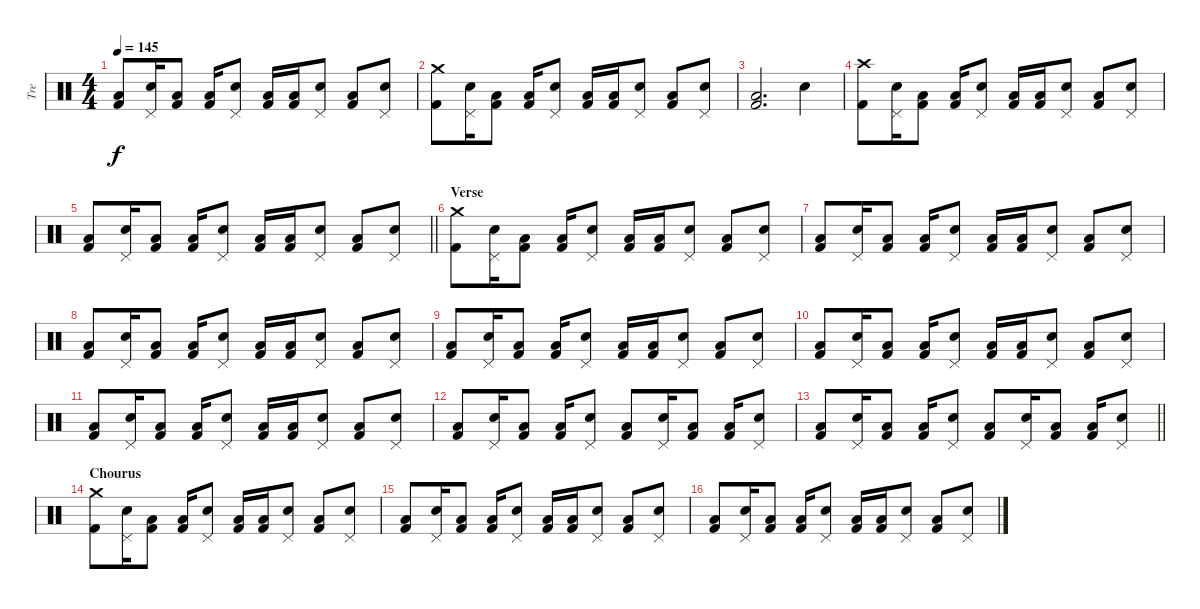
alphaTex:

\track ("Tre" "Tre") {instrument percussion}
\staff {score}
\articulation defaults
\ts (4 4)
\tempo 145
\clef neutral
\ks c
("Low Floor Tom (hit)" "Kick (hit) 2").8{dy f} ("Snare (hit) 2" "Pedal Hi-Hat (hit)").16 ("Low Floor Tom (hit)" "Kick (hit) 2").8 ("Low Floor Tom (hit)" "Kick (hit) 2").16 ("Snare (hit) 2" "Pedal Hi-Hat (hit)").8 ("Low Floor Tom (hit)" "Kick (hit) 2").16 ("Low Floor Tom (hit)" "Kick (hit) 2").16 ("Snare (hit) 2" "Pedal Hi-Hat (hit)").8 ("Low Floor Tom (hit)" "Kick (hit) 2").8 ("Snare (hit) 2" "Pedal Hi-Hat (hit)").8 |
("Crash medium (hit)" "Kick (hit) 2").8 ("Snare (hit) 2" "Pedal Hi-Hat (hit)").16 ("Low Floor Tom (hit)" "Kick (hit) 2").8 ("Low Floor Tom (hit)" "Kick (hit) 2").16 ("Snare (hit) 2" "Pedal Hi-Hat (hit)").8 ("Low Floor Tom (hit)" "Kick (hit) 2").16 ("Low Floor Tom (hit)" "Kick (hit) 2").16 ("Snare (hit) 2" "Pedal Hi-Hat (hit)").8 ("Low Floor Tom (hit)" "Kick (hit) 2").8 ("Snare (hit) 2" "Pedal Hi-Hat (hit)").8 |
("Low Floor Tom (hit)" "Kick (hit) 2").2{d} "Snare (hit) 2".4 |
("Crash high (hit)" "Kick (hit) 2").8 ("Snare (hit) 2" "Pedal Hi-Hat (hit)").16 ("Low Floor Tom (hit)" "Kick (hit) 2").8 ("Low Floor Tom (hit)" "Kick (hit) 2").16 ("Snare (hit) 2" "Pedal Hi-Hat (hit)").8 ("Low Floor Tom (hit)" "Kick (hit) 2").16 ("Low Floor Tom (hit)" "Kick (hit) 2").16 ("Snare (hit) 2" "Pedal Hi-Hat (hit)").8 ("Low Floor Tom (hit)" "Kick (hit) 2").8 ("Snare (hit) 2" "Pedal Hi-Hat (hit)").8 |
\barLineRight lightlight
("Low Floor Tom (hit)" "Kick (hit) 2").8 ("Snare (hit) 2" "Pedal Hi-Hat (hit)").16 ("Low Floor Tom (hit)" "Kick (hit) 2").8 ("Low Floor Tom (hit)" "Kick (hit) 2").16 ("Snare (hit) 2" "Pedal Hi-Hat (hit)").8 ("Low Floor Tom (hit)" "Kick (hit) 2").16 ("Low Floor Tom (hit)" "Kick (hit) 2").16 ("Snare (hit) 2" "Pedal Hi-Hat (hit)").8 ("Low Floor Tom (hit)" "Kick (hit) 2").8 ("Snare (hit) 2" "Pedal Hi-Hat (hit)").8 |
\section ("" "Verse")
("Crash medium (hit)" "Kick (hit) 2").8 ("Snare (hit) 2" "Pedal Hi-Hat (hit)").16 ("Low Floor Tom (hit)" "Kick (hit) 2").8 ("Low Floor Tom (hit)" "Kick (hit) 2").16 ("Snare (hit) 2" "Pedal Hi-Hat (hit)").8 ("Low Floor Tom (hit)" "Kick (hit) 2").16 ("Low Floor Tom (hit)" "Kick (hit) 2").16 ("Snare (hit) 2" "Pedal Hi-Hat (hit)").8 ("Low Floor Tom (hit)" "Kick (hit) 2").8 ("Snare (hit) 2" "Pedal Hi-Hat (hit)").8 |
("Low Floor Tom (hit)" "Kick (hit) 2").8 ("Snare (hit) 2" "Pedal Hi-Hat (hit)").16 ("Low Floor Tom (hit)" "Kick (hit) 2").8 ("Low Floor Tom (hit)" "Kick (hit) 2").16 ("Snare (hit) 2" "Pedal Hi-Hat (hit)").8 ("Low Floor Tom (hit)" "Kick (hit) 2").16 ("Low Floor Tom (hit)" "Kick (hit) 2").16 ("Snare (hit) 2" "Pedal Hi-Hat (hit)").8 ("Low Floor Tom (hit)" "Kick (hit) 2").8 ("Snare (hit) 2" "Pedal Hi-Hat (hit)").8 |
("Low Floor Tom (hit)" "Kick (hit) 2").8 ("Snare (hit) 2" "Pedal Hi-Hat (hit)").16 ("Low Floor Tom (hit)" "Kick (hit) 2").8 ("Low Floor Tom (hit)" "Kick (hit) 2").16 ("Snare (hit) 2" "Pedal Hi-Hat (hit)").8 ("Low Floor Tom (hit)" "Kick (hit) 2").16 ("Low Floor Tom (hit)" "Kick (hit) 2").16 ("Snare (hit) 2" "Pedal Hi-Hat (hit)").8 ("Low Floor Tom (hit)" "Kick (hit) 2").8 ("Snare (hit) 2" "Pedal Hi-Hat (hit)").8 |
("Low Floor Tom (hit)" "Kick (hit) 2").8 ("Snare (hit) 2" "Pedal Hi-Hat (hit)").16 ("Low Floor Tom (hit)" "Kick (hit) 2").8 ("Low Floor Tom (hit)" "Kick (hit) 2").16 ("Snare (hit) 2" "Pedal Hi-Hat (hit)").8 ("Low Floor Tom (hit)" "Kick (hit) 2").16 ("Low Floor Tom (hit)" "Kick (hit) 2").16 ("Snare (hit) 2" "Pedal Hi-Hat (hit)").8 ("Low Floor Tom (hit)" "Kick (hit) 2").8 ("Snare (hit) 2" "Pedal Hi-Hat (hit)").8 |
("Low Floor Tom (hit)" "Kick (hit) 2").8 ("Snare (hit) 2" "Pedal Hi-Hat (hit)").16 ("Low Floor Tom (hit)" "Kick (hit) 2").8 ("Low Floor Tom (hit)" "Kick (hit) 2").16 ("Snare (hit) 2" "Pedal Hi-Hat (hit)").8 ("Low Floor Tom (hit)" "Kick (hit) 2").16 ("Low Floor Tom (hit)" "Kick (hit) 2").16 ("Snare (hit) 2" "Pedal Hi-Hat (hit)").8 ("Low Floor Tom (hit)" "Kick (hit) 2").8 ("Snare (hit) 2" "Pedal Hi-Hat (hit)").8 |
("Low Floor Tom (hit)" "Kick (hit) 2").8 ("Snare (hit) 2" "Pedal Hi-Hat (hit)").16 ("Low Floor Tom (hit)" "Kick (hit) 2").8 ("Low Floor Tom (hit)" "Kick (hit) 2").16 ("Snare (hit) 2" "Pedal Hi-Hat (hit)").8 ("Low Floor Tom (hit)" "Kick (hit) 2").16 ("Low Floor Tom (hit)" "Kick (hit) 2").16 ("Snare (hit) 2" "Pedal Hi-Hat (hit)").8 ("Low Floor Tom (hit)" "Kick (hit) 2").8 ("Snare (hit) 2" "Pedal Hi-Hat (hit)").8 |
("Low Floor Tom (hit)" "Kick (hit) 2").8 ("Snare (hit) 2" "Pedal Hi-Hat (hit)").16 ("Low Floor Tom (hit)" "Kick (hit) 2").8 ("Low Floor Tom (hit)" "Kick (hit) 2").16 ("Snare (hit) 2" "Pedal Hi-Hat (hit)").8 ("Low Floor Tom (hit)" "Kick (hit) 2").8 ("Snare (hit) 2" "Pedal Hi-Hat (hit)").16 ("Low Floor Tom (hit)" "Kick (hit) 2").8 ("Low Floor Tom (hit)" "Kick (hit) 2").16 ("Snare (hit) 2" "Pedal Hi-Hat (hit)").8 |
\barLineRight lightlight
("Low Floor Tom (hit)" "Kick (hit) 2").8 ("Snare (hit) 2" "Pedal Hi-Hat (hit)").16 ("Low Floor Tom (hit)" "Kick (hit) 2").8 ("Low Floor Tom (hit)" "Kick (hit) 2").16 ("Snare (hit) 2" "Pedal Hi-Hat (hit)").8 ("Low Floor Tom (hit)" "Kick (hit) 2").8 ("Snare (hit) 2" "Pedal Hi-Hat (hit)").16 ("Low Floor Tom (hit)" "Kick (hit) 2").8 ("Low Floor Tom (hit)" "Kick (hit) 2").16 ("Snare (hit) 2" "Pedal Hi-Hat (hit)").8 |
\section ("" "Chourus")
("Crash medium (hit)" "Kick (hit) 2").8 ("Snare (hit) 2" "Pedal Hi-Hat (hit)").16 ("Low Floor Tom (hit)" "Kick (hit) 2").8 ("Low Floor Tom (hit)" "Kick (hit) 2").16 ("Snare (hit) 2" "Pedal Hi-Hat (hit)").8 ("Low Floor Tom (hit)" "Kick (hit) 2").16 ("Low Floor Tom (hit)" "Kick (hit) 2").16 ("Snare (hit) 2" "Pedal Hi-Hat (hit)").8 ("Low Floor Tom (hit)" "Kick (hit) 2").8 ("Snare (hit) 2" "Pedal Hi-Hat (hit)").8 |
("Low Floor Tom (hit)" "Kick (hit) 2").8 ("Snare (hit) 2" "Pedal Hi-Hat (hit)").16 ("Low Floor Tom (hit)" "Kick (hit) 2").8 ("Low Floor Tom (hit)" "Kick (hit) 2").16 ("Snare (hit) 2" "Pedal Hi-Hat (hit)").8 ("Low Floor Tom (hit)" "Kick (hit) 2").16 ("Low Floor Tom (hit)" "Kick (hit) 2").16 ("Snare (hit) 2" "Pedal Hi-Hat (hit)").8 ("Low Floor Tom (hit)" "Kick (hit) 2").8 ("Snare (hit) 2" "Pedal Hi-Hat (hit)").8 |
("Low Floor Tom (hit)" "Kick (hit) 2").8 ("Snare (hit) 2" "Pedal Hi-Hat (hit)").16 ("Low Floor Tom (hit)" "Kick (hit) 2").8 ("Low Floor Tom (hit)" "Kick (hit) 2").16 ("Snare (hit) 2" "Pedal Hi-Hat (hit)").8 ("Low Floor Tom (hit)" "Kick (hit) 2").16 ("Low Floor Tom (hit)" "Kick (hit) 2").16 ("Snare (hit) 2" "Pedal Hi-Hat (hit)").8 ("Low Floor Tom (hit)" "Kick (hit) 2").8 ("Snare (hit) 2" "Pedal Hi-Hat (hit)").8
